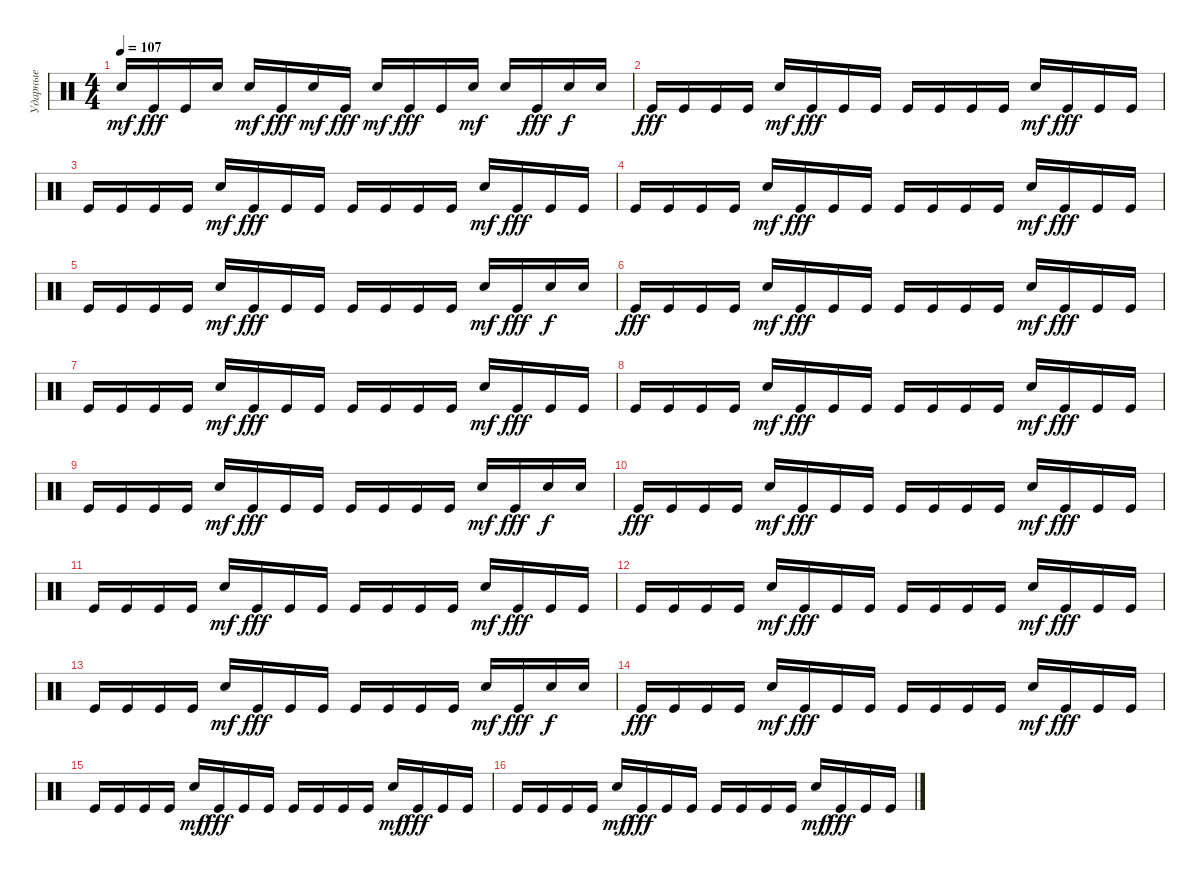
\track ("Ударные" "Ударные") {instrument percussion}
\staff {score}
\articulation defaults
\ts (4 4)
\tempo 107
\clef neutral
\ks c "Electric Snare (hit)".16{dy mf} "Kick (hit)".16{dy fff} "Kick (hit)".16 "Electric Snare (hit)".16 "Electric Snare (hit)".16{dy mf} "Kick (hit)".16{dy fff} "Electric Snare (hit)".16{dy mf} "Kick (hit)".16{dy fff} "Electric Snare (hit)".16{dy mf} "Kick (hit)".16{dy fff} "Kick (hit)".16 "Electric Snare (hit)".16{dy mf} "Electric Snare (hit)".16 "Kick (hit)".16{dy fff} "Electric Snare (hit)".16{dy f} "Electric Snare (hit)".16
|
"Kick (hit)".16{dy fff} "Kick (hit)".16 "Kick (hit)".16 "Kick (hit)".16 "Electric Snare (hit)".16{dy mf} "Kick (hit)".16{dy fff} "Kick (hit)".16 "Kick (hit)".16 "Kick (hit)".16 "Kick (hit)".16 "Kick (hit)".16 "Kick (hit)".16 "Electric Snare (hit)".16{dy mf} "Kick (hit)".16{dy fff} "Kick (hit)".16 "Kick (hit)".16 |
"Kick (hit)".16 "Kick (hit)".16 "Kick (hit)".16 "Kick (hit)".16 "Electric Snare (hit)".16{dy mf} "Kick (hit)".16{dy fff} "Kick (hit)".16 "Kick (hit)".16 "Kick (hit)".16 "Kick (hit)".16 "Kick (hit)".16 "Kick (hit)".16 "Electric Snare (hit)".16{dy mf} "Kick (hit)".16{dy fff} "Kick (hit)".16 "Kick (hit)".16 |
"Kick (hit)".16 "Kick (hit)".16 "Kick (hit)".16 "Kick (hit)".16 "Electric Snare (hit)".16{dy mf} "Kick (hit)".16{dy fff} "Kick (hit)".16 "Kick (hit)".16 "Kick (hit)".16 "Kick (hit)".16 "Kick (hit)".16 "Kick (hit)".16 "Electric Snare (hit)".16{dy mf} "Kick (hit)".16{dy fff} "Kick (hit)".16 "Kick (hit)".16 |
"Kick (hit)".16 "Kick (hit)".16 "Kick (hit)".16 "Kick (hit)".16 "Electric Snare (hit)".16{dy mf} "Kick (hit)".16{dy fff} "Kick (hit)".16 "Kick (hit)".16 "Kick (hit)".16 "Kick (hit)".16 "Kick (hit)".16 "Kick (hit)".16 "Electric Snare (hit)".16{dy mf} "Kick (hit)".16{dy fff} "Electric Snare (hit)".16{dy f} "Electric Snare (hit)".16 |
"Kick (hit)".16{dy fff} "Kick (hit)".16 "Kick (hit)".16 "Kick (hit)".16 "Electric Snare (hit)".16{dy mf} "Kick (hit)".16{dy fff} "Kick (hit)".16 "Kick (hit)".16 "Kick (hit)".16 "Kick (hit)".16 "Kick (hit)".16 "Kick (hit)".16 "Electric Snare (hit)".16{dy mf} "Kick (hit)".16{dy fff} "Kick (hit)".16 "Kick (hit)".16 |
"Kick (hit)".16 "Kick (hit)".16 "Kick (hit)".16 "Kick (hit)".16 "Electric Snare (hit)".16{dy mf} "Kick (hit)".16{dy fff} "Kick (hit)".16 "Kick (hit)".16 "Kick (hit)".16 "Kick (hit)".16 "Kick (hit)".16 "Kick (hit)".16 "Electric Snare (hit)".16{dy mf} "Kick (hit)".16{dy fff} "Kick (hit)".16 "Kick (hit)".16 |
"Kick (hit)".16 "Kick (hit)".16 "Kick (hit)".16 "Kick (hit)".16 "Electric Snare (hit)".16{dy mf} "Kick (hit)".16{dy fff} "Kick (hit)".16 "Kick (hit)".16 "Kick (hit)".16 "Kick (hit)".16 "Kick (hit)".16 "Kick (hit)".16 "Electric Snare (hit)".16{dy mf} "Kick (hit)".16{dy fff} "Kick (hit)".16 "Kick (hit)".16 |
"Kick (hit)".16 "Kick (hit)".16 "Kick (hit)".16 "Kick (hit)".16 "Electric Snare (hit)".16{dy mf} "Kick (hit)".16{dy fff} "Kick (hit)".16 "Kick (hit)".16 "Kick (hit)".16 "Kick (hit)".16 "Kick (hit)".16 "Kick (hit)".16 "Electric Snare (hit)".16{dy mf} "Kick (hit)".16{dy fff} "Electric Snare (hit)".16{dy f} "Electric Snare (hit)".16 |
"Kick (hit)".16{dy fff} "Kick (hit)".16 "Kick (hit)".16 "Kick (hit)".16 "Electric Snare (hit)".16{dy mf} "Kick (hit)".16{dy fff} "Kick (hit)".16 "Kick (hit)".16 "Kick (hit)".16 "Kick (hit)".16 "Kick (hit)".16 "Kick (hit)".16 "Electric Snare (hit)".16{dy mf} "Kick (hit)".16{dy fff} "Kick (hit)".16 "Kick (hit)".16 |
"Kick (hit)".16 "Kick (hit)".16 "Kick (hit)".16 "Kick (hit)".16 "Electric Snare (hit)".16{dy mf} "Kick (hit)".16{dy fff} "Kick (hit)".16 "Kick (hit)".16 "Kick (hit)".16 "Kick (hit)".16 "Kick (hit)".16 "Kick (hit)".16 "Electric Snare (hit)".16{dy mf} "Kick (hit)".16{dy fff} "Kick (hit)".16 "Kick (hit)".16 |
"Kick (hit)".16 "Kick (hit)".16 "Kick (hit)".16 "Kick (hit)".16 "Electric Snare (hit)".16{dy mf} "Kick (hit)".16{dy fff} "Kick (hit)".16 "Kick (hit)".16 "Kick (hit)".16 "Kick (hit)".16 "Kick (hit)".16 "Kick (hit)".16 "Electric Snare (hit)".16{dy mf} "Kick (hit)".16{dy fff} "Kick (hit)".16 "Kick (hit)".16 |
"Kick (hit)".16 "Kick (hit)".16 "Kick (hit)".16 "Kick (hit)".16 "Electric Snare (hit)".16{dy mf} "Kick (hit)".16{dy fff} "Kick (hit)".16 "Kick (hit)".16 "Kick (hit)".16 "Kick (hit)".16 "Kick (hit)".16 "Kick (hit)".16 "Electric Snare (hit)".16{dy mf} "Kick (hit)".16{dy fff} "Electric Snare (hit)".16{dy f} "Electric Snare (hit)".16 |
"Kick (hit)".16{dy fff} "Kick (hit)".16 "Kick (hit)".16 "Kick (hit)".16 "Electric Snare (hit)".16{dy mf} "Kick (hit)".16{dy fff} "Kick (hit)".16 "Kick (hit)".16 "Kick (hit)".16 "Kick (hit)".16 "Kick (hit)".16 "Kick (hit)".16 "Electric Snare (hit)".16{dy mf} "Kick (hit)".16{dy fff} "Kick (hit)".16 "Kick (hit)".16 |
"Kick (hit)".16 "Kick (hit)".16 "Kick (hit)".16 "Kick (hit)".16 "Electric Snare (hit)".16{dy mf} "Kick (hit)".16{dy fff} "Kick (hit)".16 "Kick (hit)".16 "Kick (hit)".16 "Kick (hit)".16 "Kick (hit)".16 "Kick (hit)".16 "Electric Snare (hit)".16{dy mf} "Kick (hit)".16{dy fff} "Kick (hit)".16 "Kick (hit)".16 |
"Kick (hit)".16 "Kick (hit)".16 "Kick (hit)".16 "Kick (hit)".16 "Electric Snare (hit)".16{dy mf} "Kick (hit)".16{dy fff} "Kick (hit)".16 "Kick (hit)".16 "Kick (hit)".16 "Kick (hit)".16 "Kick (hit)".16 "Kick (hit)".16 "Electric Snare (hit)".16{dy mf} "Kick (hit)".16{dy fff} "Kick (hit)".16 "Kick (hit)".16
